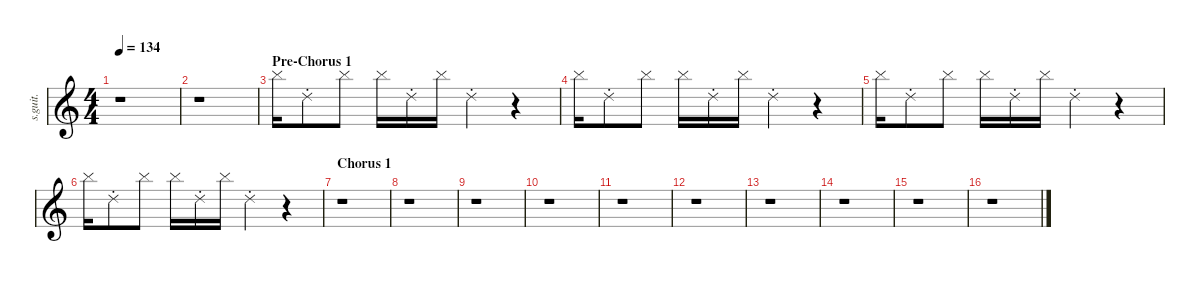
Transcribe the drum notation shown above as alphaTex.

\defaultSystemsLayout 4
\hideDynamics
\bracketExtendMode nobrackets
\track ("Sid Wilson" "s.guit.") {instrument percussion}
\staff {score}
\articulation defaults
\ts (4 4)
\tempo 134
\clef g2
\ks c
r.1{dy f} |
r.1 |
\section ("" "Pre-Chorus 1")
"Cymbal (hit)".16 "Ride (choke) 2".8 "Cymbal (hit)".8 "Cymbal (hit)".16 "Ride (choke) 2".16 "Cymbal (hit)".16 "Ride (choke) 2".4 r.4 |
"Cymbal (hit)".16 "Ride (choke) 2".8 "Cymbal (hit)".8 "Cymbal (hit)".16 "Ride (choke) 2".16 "Cymbal (hit)".16 "Ride (choke) 2".4 r.4 |
"Cymbal (hit)".16 "Ride (choke) 2".8 "Cymbal (hit)".8 "Cymbal (hit)".16 "Ride (choke) 2".16 "Cymbal (hit)".16 "Ride (choke) 2".4 r.4 |
"Cymbal (hit)".16 "Ride (choke) 2".8 "Cymbal (hit)".8 "Cymbal (hit)".16 "Ride (choke) 2".16 "Cymbal (hit)".16 "Ride (choke) 2".4 r.4 |
\section ("" "Chorus 1")
r.1 |
r.1 |
r.1 |
r.1 |
r.1 |
r.1 |
r.1 |
r.1 |
r.1 |
r.1
